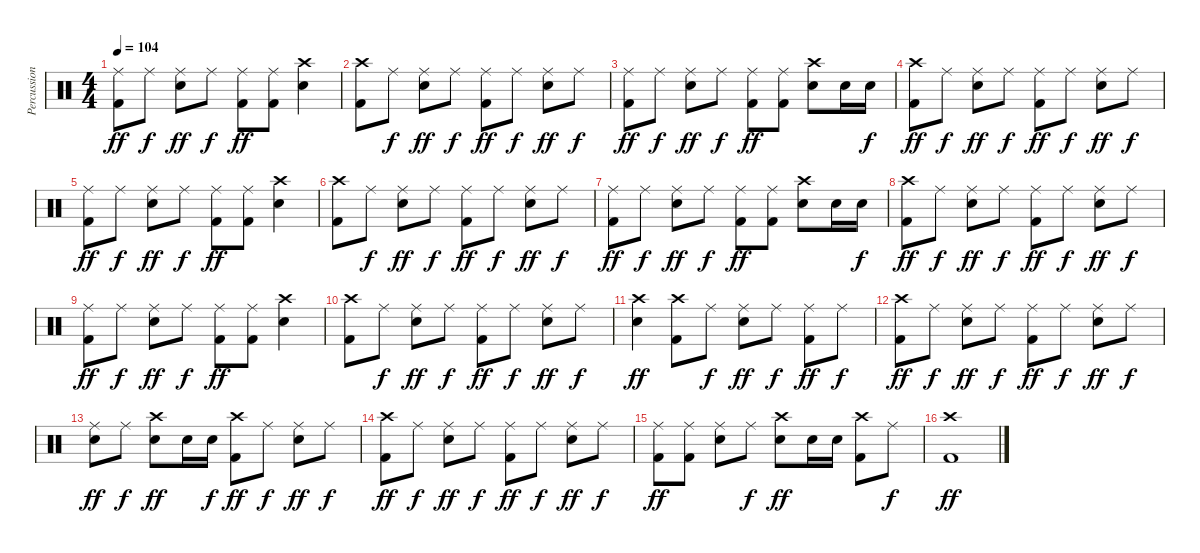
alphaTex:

\track ("Percussion" "Percussion") {instrument percussion}
\staff {score}
\articulation defaults
\ts (4 4)
\tempo 104
\clef neutral
\ks c
("Ride (middle)" "Kick (hit) 2").8{dy ff} "Ride (middle)".8{dy f} ("Ride (middle)" "Snare (hit) 2").8{dy ff} "Ride (middle)".8{dy f} ("Ride (middle)" "Kick (hit) 2").8{dy ff} ("Ride (middle)" "Kick (hit) 2").8 ("Crash high (hit)" "Snare (hit) 2").4 |
("Crash high (hit)" "Kick (hit) 2").8 "Ride (middle)".8{dy f} ("Ride (middle)" "Snare (hit) 2").8{dy ff} "Ride (middle)".8{dy f} ("Ride (middle)" "Kick (hit) 2").8{dy ff} "Ride (middle)".8{dy f} ("Ride (middle)" "Snare (hit) 2").8{dy ff} "Ride (middle)".8{dy f} |
("Ride (middle)" "Kick (hit) 2").8{dy ff} "Ride (middle)".8{dy f} ("Ride (middle)" "Snare (hit) 2").8{dy ff} "Ride (middle)".8{dy f} ("Ride (middle)" "Kick (hit) 2").8{dy ff} ("Ride (middle)" "Kick (hit) 2").8 ("Crash high (hit)" "Snare (hit) 2").8 "Snare (hit) 2".16 "Snare (hit) 2".16{dy f} |
("Crash high (hit)" "Kick (hit) 2").8{dy ff} "Ride (middle)".8{dy f} ("Ride (middle)" "Snare (hit) 2").8{dy ff} "Ride (middle)".8{dy f} ("Ride (middle)" "Kick (hit) 2").8{dy ff} "Ride (middle)".8{dy f} ("Ride (middle)" "Snare (hit) 2").8{dy ff} "Ride (middle)".8{dy f} |
("Ride (middle)" "Kick (hit) 2").8{dy ff} "Ride (middle)".8{dy f} ("Ride (middle)" "Snare (hit) 2").8{dy ff} "Ride (middle)".8{dy f} ("Ride (middle)" "Kick (hit) 2").8{dy ff} ("Ride (middle)" "Kick (hit) 2").8 ("Crash high (hit)" "Snare (hit) 2").4 |
("Crash high (hit)" "Kick (hit) 2").8 "Ride (middle)".8{dy f} ("Ride (middle)" "Snare (hit) 2").8{dy ff} "Ride (middle)".8{dy f} ("Ride (middle)" "Kick (hit) 2").8{dy ff} "Ride (middle)".8{dy f} ("Ride (middle)" "Snare (hit) 2").8{dy ff} "Ride (middle)".8{dy f} |
("Ride (middle)" "Kick (hit) 2").8{dy ff} "Ride (middle)".8{dy f} ("Ride (middle)" "Snare (hit) 2").8{dy ff} "Ride (middle)".8{dy f} ("Ride (middle)" "Kick (hit) 2").8{dy ff} ("Ride (middle)" "Kick (hit) 2").8 ("Crash high (hit)" "Snare (hit) 2").8 "Snare (hit) 2".16 "Snare (hit) 2".16{dy f} |
("Crash high (hit)" "Kick (hit) 2").8{dy ff} "Ride (middle)".8{dy f} ("Ride (middle)" "Snare (hit) 2").8{dy ff} "Ride (middle)".8{dy f} ("Ride (middle)" "Kick (hit) 2").8{dy ff} "Ride (middle)".8{dy f} ("Ride (middle)" "Snare (hit) 2").8{dy ff} "Ride (middle)".8{dy f} |
("Ride (middle)" "Kick (hit) 2").8{dy ff} "Ride (middle)".8{dy f} ("Ride (middle)" "Snare (hit) 2").8{dy ff} "Ride (middle)".8{dy f} ("Ride (middle)" "Kick (hit) 2").8{dy ff} ("Ride (middle)" "Kick (hit) 2").8 ("Crash high (hit)" "Snare (hit) 2").4 |
("Crash high (hit)" "Kick (hit) 2").8 "Ride (middle)".8{dy f} ("Ride (middle)" "Snare (hit) 2").8{dy ff} "Ride (middle)".8{dy f} ("Ride (middle)" "Kick (hit) 2").8{dy ff} "Ride (middle)".8{dy f} ("Ride (middle)" "Snare (hit) 2").8{dy ff} "Ride (middle)".8{dy f} |
("Crash high (hit)" "Snare (hit) 2").4{dy ff} ("Crash high (hit)" "Kick (hit) 2").8 "Ride (middle)".8{dy f} ("Ride (middle)" "Snare (hit) 2").8{dy ff} "Ride (middle)".8{dy f} ("Ride (middle)" "Kick (hit) 2").8{dy ff} "Ride (middle)".8{dy f} |
("Crash high (hit)" "Kick (hit) 2").8{dy ff} "Ride (middle)".8{dy f} ("Ride (middle)" "Snare (hit) 2").8{dy ff} "Ride (middle)".8{dy f} ("Ride (middle)" "Kick (hit) 2").8{dy ff} "Ride (middle)".8{dy f} ("Ride (middle)" "Snare (hit) 2").8{dy ff} "Ride (middle)".8{dy f} |
("Ride (middle)" "Snare (hit) 2").8{dy ff} "Ride (middle)".8{dy f} ("Crash high (hit)" "Snare (hit) 2").8{dy ff} "Snare (hit) 2".16 "Snare (hit) 2".16{dy f} ("Crash high (hit)" "Kick (hit) 2").8{dy ff} "Ride (middle)".8{dy f} ("Ride (middle)" "Snare (hit) 2").8{dy ff} "Ride (middle)".8{dy f} |
("Crash high (hit)" "Kick (hit) 2").8{dy ff} "Ride (middle)".8{dy f} ("Ride (middle)" "Snare (hit) 2").8{dy ff} "Ride (middle)".8{dy f} ("Ride (middle)" "Kick (hit) 2").8{dy ff} "Ride (middle)".8{dy f} ("Ride (middle)" "Snare (hit) 2").8{dy ff} "Ride (middle)".8{dy f} |
("Ride (middle)" "Kick (hit) 2").8{dy ff} ("Ride (middle)" "Kick (hit) 2").8 ("Ride (middle)" "Snare (hit) 2").8 "Ride (middle)".8{dy f} ("Crash high (hit)" "Snare (hit) 2").8{dy ff} "Snare (hit) 2".16 "Snare (hit) 2".16 ("Crash high (hit)" "Kick (hit) 2").8 "Ride (middle)".8{dy f} |
("Crash high (hit)" "Kick (hit) 2").1{dy ff}
